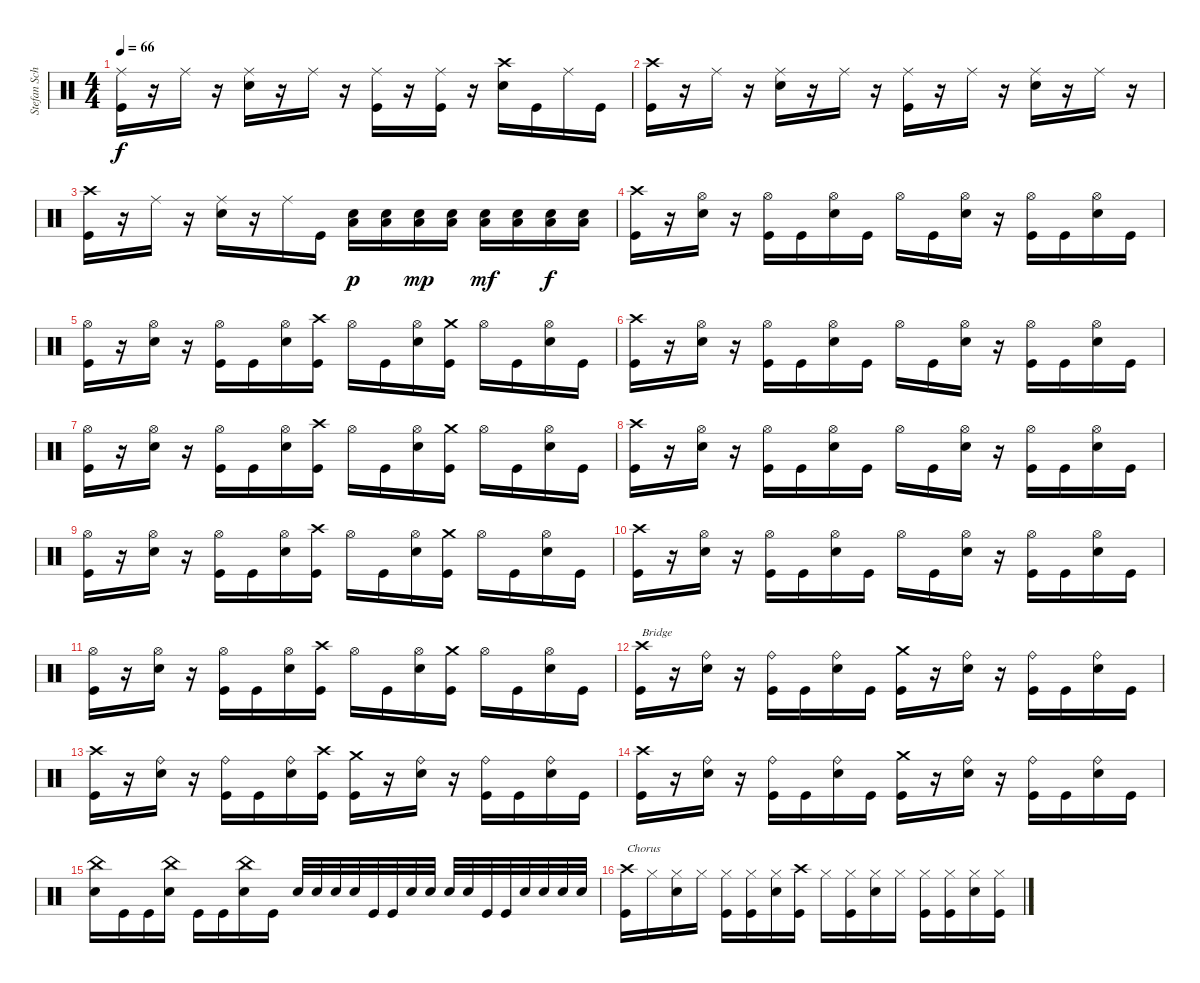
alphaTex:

\track ("Stefan Schwarzmann" "Stefan Sch") {instrument percussion}
\staff {score}
\articulation defaults
\ts (4 4)
\tempo 66
\clef neutral
\ks c
("Kick (hit)" "Ride (middle)").16{dy f} r.16 "Ride (middle)".16 r.16 ("Snare (hit) 2" "Ride (middle)").16 r.16 "Ride (middle)".16 r.16 ("Kick (hit)" "Ride (middle)").16 r.16 ("Ride (middle)" "Kick (hit)").16 r.16 ("Snare (hit) 2" "Crash high (hit)").16 "Kick (hit)".16 "Ride (middle)".16 "Kick (hit)".16 |
("Kick (hit)" "Crash high (hit)").16 r.16 "Ride (middle)".16 r.16 ("Snare (hit) 2" "Ride (middle)").16 r.16 "Ride (middle)".16 r.16 ("Kick (hit)" "Ride (middle)").16 r.16 "Ride (middle)".16 r.16 ("Snare (hit) 2" "Ride (middle)").16 r.16 "Ride (middle)".16 r.16 |
("Kick (hit)" "Crash high (hit)").16 r.16 "Ride (middle)".16 r.16 ("Snare (hit) 2" "Ride (middle)").16 r.16 "Ride (middle)".16 "Kick (hit)".16 ("Snare (hit) 2" "Low Floor Tom (hit)").16{dy p} ("Snare (hit) 2" "Low Floor Tom (hit)").16 ("Snare (hit) 2" "Low Floor Tom (hit)").16{dy mp} ("Snare (hit) 2" "Low Floor Tom (hit)").16 ("Snare (hit) 2" "Low Floor Tom (hit)").16{dy mf} ("Snare (hit) 2" "Low Floor Tom (hit)").16 ("Snare (hit) 2" "Low Floor Tom (hit)").16{dy f} ("Snare (hit) 2" "Low Floor Tom (hit)").16 |
("Kick (hit)" "Crash high (hit)").16 r.16 ("Snare (hit) 2" "Hi-Hat (open)").16 r.16 ("Kick (hit)" "Hi-Hat (open)").16 "Kick (hit)".16 ("Snare (hit) 2" "Hi-Hat (open)").16 "Kick (hit)".16 "Hi-Hat (open)".16 "Kick (hit)".16 ("Snare (hit) 2" "Hi-Hat (open)").16 r.16 ("Kick (hit)" "Hi-Hat (open)").16 "Kick (hit)".16 ("Snare (hit) 2" "Hi-Hat (open)").16 "Kick (hit)".16 |
("Kick (hit)" "Hi-Hat (open)").16 r.16 ("Snare (hit) 2" "Hi-Hat (open)").16 r.16 ("Kick (hit)" "Hi-Hat (open)").16 "Kick (hit)".16 ("Snare (hit) 2" "Hi-Hat (open)").16 ("Kick (hit)" "Crash high (hit)").16 "Hi-Hat (open)".16 "Kick (hit)".16 ("Snare (hit) 2" "Hi-Hat (open)").16 ("Kick (hit)" "Crash medium (hit)").16 "Hi-Hat (open)".16 "Kick (hit)".16 ("Snare (hit) 2" "Hi-Hat (open)").16 "Kick (hit)".16 |
("Kick (hit)" "Crash high (hit)").16 r.16 ("Snare (hit) 2" "Hi-Hat (open)").16 r.16 ("Kick (hit)" "Hi-Hat (open)").16 "Kick (hit)".16 ("Snare (hit) 2" "Hi-Hat (open)").16 "Kick (hit)".16 "Hi-Hat (open)".16 "Kick (hit)".16 ("Snare (hit) 2" "Hi-Hat (open)").16 r.16 ("Kick (hit)" "Hi-Hat (open)").16 "Kick (hit)".16 ("Snare (hit) 2" "Hi-Hat (open)").16 "Kick (hit)".16 |
("Kick (hit)" "Hi-Hat (open)").16 r.16 ("Snare (hit) 2" "Hi-Hat (open)").16 r.16 ("Kick (hit)" "Hi-Hat (open)").16 "Kick (hit)".16 ("Snare (hit) 2" "Hi-Hat (open)").16 ("Kick (hit)" "Crash high (hit)").16 "Hi-Hat (open)".16 "Kick (hit)".16 ("Snare (hit) 2" "Hi-Hat (open)").16 ("Kick (hit)" "Crash medium (hit)").16 "Hi-Hat (open)".16 "Kick (hit)".16 ("Snare (hit) 2" "Hi-Hat (open)").16 "Kick (hit)".16 |
("Kick (hit)" "Crash high (hit)").16 r.16 ("Snare (hit) 2" "Hi-Hat (open)").16 r.16 ("Kick (hit)" "Hi-Hat (open)").16 "Kick (hit)".16 ("Snare (hit) 2" "Hi-Hat (open)").16 "Kick (hit)".16 "Hi-Hat (open)".16 "Kick (hit)".16 ("Snare (hit) 2" "Hi-Hat (open)").16 r.16 ("Kick (hit)" "Hi-Hat (open)").16 "Kick (hit)".16 ("Snare (hit) 2" "Hi-Hat (open)").16 "Kick (hit)".16 |
("Kick (hit)" "Hi-Hat (open)").16 r.16 ("Snare (hit) 2" "Hi-Hat (open)").16 r.16 ("Kick (hit)" "Hi-Hat (open)").16 "Kick (hit)".16 ("Snare (hit) 2" "Hi-Hat (open)").16 ("Kick (hit)" "Crash high (hit)").16 "Hi-Hat (open)".16 "Kick (hit)".16 ("Snare (hit) 2" "Hi-Hat (open)").16 ("Kick (hit)" "Crash medium (hit)").16 "Hi-Hat (open)".16 "Kick (hit)".16 ("Snare (hit) 2" "Hi-Hat (open)").16 "Kick (hit)".16 |
("Kick (hit)" "Crash high (hit)").16 r.16 ("Snare (hit) 2" "Hi-Hat (open)").16 r.16 ("Kick (hit)" "Hi-Hat (open)").16 "Kick (hit)".16 ("Snare (hit) 2" "Hi-Hat (open)").16 "Kick (hit)".16 "Hi-Hat (open)".16 "Kick (hit)".16 ("Snare (hit) 2" "Hi-Hat (open)").16 r.16 ("Kick (hit)" "Hi-Hat (open)").16 "Kick (hit)".16 ("Snare (hit) 2" "Hi-Hat (open)").16 "Kick (hit)".16 |
("Kick (hit)" "Hi-Hat (open)").16 r.16 ("Snare (hit) 2" "Hi-Hat (open)").16 r.16 ("Kick (hit)" "Hi-Hat (open)").16 "Kick (hit)".16 ("Snare (hit) 2" "Hi-Hat (open)").16 ("Kick (hit)" "Crash high (hit)").16 "Hi-Hat (open)".16 "Kick (hit)".16 ("Snare (hit) 2" "Hi-Hat (open)").16 ("Kick (hit)" "Crash medium (hit)").16 "Hi-Hat (open)".16 "Kick (hit)".16 ("Snare (hit) 2" "Hi-Hat (open)").16 "Kick (hit)".16 |
("Kick (hit)" "Crash high (hit)").16{txt "Bridge"} r.16 ("Snare (hit) 2" "Ride (bell)").16 r.16 ("Kick (hit)" "Ride (bell)").16 "Kick (hit)".16 ("Snare (hit) 2" "Ride (bell)").16 "Kick (hit)".16 ("Kick (hit)" "Crash medium (hit)").16 r.16 ("Snare (hit) 2" "Ride (bell)").16 r.16 ("Kick (hit)" "Ride (bell)").16 "Kick (hit)".16 ("Ride (bell)" "Snare (hit) 2").16 "Kick (hit)".16 |
("Kick (hit)" "Crash high (hit)").16 r.16 ("Snare (hit) 2" "Ride (bell)").16 r.16 ("Kick (hit)" "Ride (bell)").16 "Kick (hit)".16 ("Snare (hit) 2" "Ride (bell)").16 ("Kick (hit)" "Crash high (hit)").16 ("Kick (hit)" "Crash medium (hit)").16 r.16 ("Snare (hit) 2" "Ride (bell)").16 r.16 ("Kick (hit)" "Ride (bell)").16 "Kick (hit)".16 ("Ride (bell)" "Snare (hit) 2").16 "Kick (hit)".16 |
("Kick (hit)" "Crash high (hit)").16 r.16 ("Snare (hit) 2" "Ride (bell)").16 r.16 ("Kick (hit)" "Ride (bell)").16 "Kick (hit)".16 ("Snare (hit) 2" "Ride (bell)").16 "Kick (hit)".16 ("Kick (hit)" "Crash medium (hit)").16 r.16 ("Snare (hit) 2" "Ride (bell)").16 r.16 ("Kick (hit)" "Ride (bell)").16 "Kick (hit)".16 ("Ride (bell)" "Snare (hit) 2").16 "Kick (hit)".16 |
("Snare (hit) 2" "China (hit)").16 "Kick (hit)".16 "Kick (hit)".16 ("Snare (hit) 2" "China (hit)").16 "Kick (hit)".16 "Kick (hit)".16 ("Snare (hit) 2" "China (hit)").16 "Kick (hit)".16 "Snare (hit) 2".32 "Snare (hit) 2".32 "Snare (hit) 2".32 "Snare (hit) 2".32 "Kick (hit)".32 "Kick (hit)".32 "Snare (hit) 2".32 "Snare (hit) 2".32 "Snare (hit) 2".32 "Snare (hit) 2".32 "Kick (hit)".32 "Kick (hit)".32 "Snare (hit) 2".32 "Snare (hit) 2".32 "Snare (hit) 2".32 "Snare (hit) 2".32 |
("Kick (hit)" "Crash high (hit)").16{txt "Chorus"} "Hi-Hat (closed)".16 ("Snare (hit) 2" "Hi-Hat (closed)").16 "Hi-Hat (closed)".16 ("Kick (hit)" "Hi-Hat (closed)").16 ("Kick (hit)" "Hi-Hat (closed)").16 ("Snare (hit) 2" "Hi-Hat (closed)").16 ("Kick (hit)" "Crash high (hit)").16 "Hi-Hat (closed)".16 ("Kick (hit)" "Hi-Hat (closed)").16 ("Snare (hit) 2" "Hi-Hat (closed)").16 "Hi-Hat (closed)".16 ("Kick (hit)" "Hi-Hat (closed)").16 ("Kick (hit)" "Hi-Hat (closed)").16 ("Snare (hit) 2" "Hi-Hat (closed)").16 ("Kick (hit)" "Hi-Hat (closed)").16
